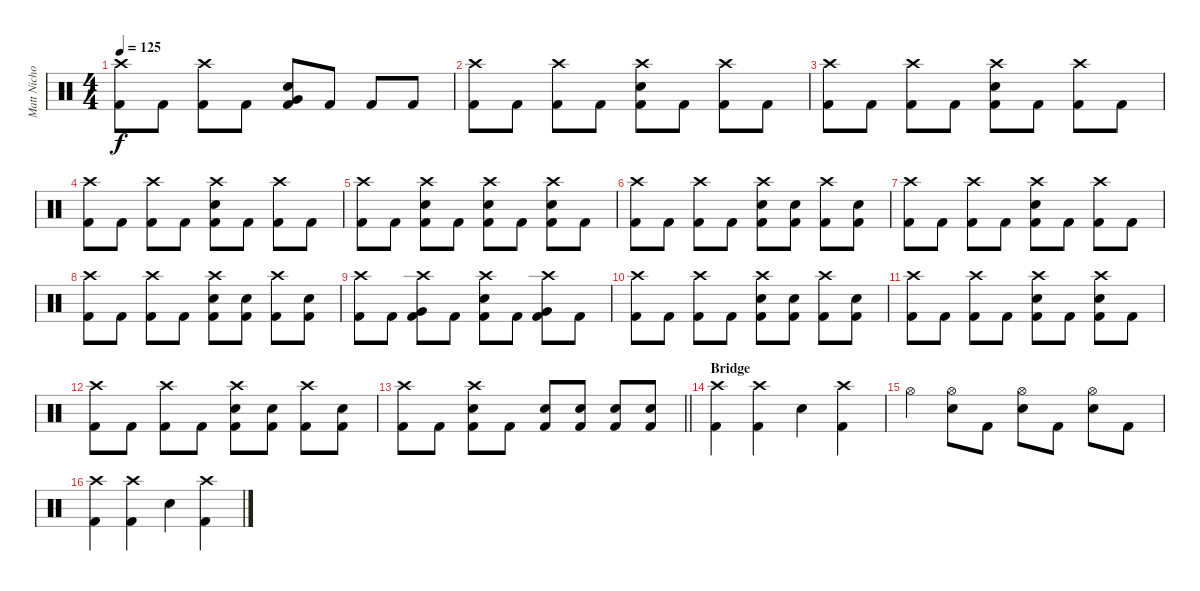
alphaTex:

\track ("Matt Nicholls" "Matt Nicho") {instrument percussion}
\staff {score}
\articulation defaults
\ts (4 4)
\tempo 125
\clef neutral
\ks c
("Crash high (hit)" "Kick (hit) 2").8{dy f} "Kick (hit) 2".8 ("Crash high (hit)" "Kick (hit) 2").8 "Kick (hit) 2".8 ("Very Low Tom (hit)" "Electric Snare (hit)" "Kick (hit) 2").8 "Kick (hit) 2".8 "Kick (hit) 2".8 "Kick (hit) 2".8 |
("Crash high (hit)" "Kick (hit) 2").8 "Kick (hit) 2".8 ("Crash high (hit)" "Kick (hit) 2").8 "Kick (hit) 2".8 ("Crash high (hit)" "Electric Snare (hit)" "Kick (hit) 2").8 "Kick (hit) 2".8 ("Crash high (hit)" "Kick (hit) 2").8 "Kick (hit) 2".8 |
("Crash high (hit)" "Kick (hit) 2").8 "Kick (hit) 2".8 ("Crash high (hit)" "Kick (hit) 2").8 "Kick (hit) 2".8 ("Crash high (hit)" "Electric Snare (hit)" "Kick (hit) 2").8 "Kick (hit) 2".8 ("Crash high (hit)" "Kick (hit) 2").8 "Kick (hit) 2".8 |
("Crash high (hit)" "Kick (hit) 2").8 "Kick (hit) 2".8 ("Crash high (hit)" "Kick (hit) 2").8 "Kick (hit) 2".8 ("Crash high (hit)" "Electric Snare (hit)" "Kick (hit) 2").8 "Kick (hit) 2".8 ("Crash high (hit)" "Kick (hit) 2").8 "Kick (hit) 2".8 |
("Crash high (hit)" "Kick (hit) 2").8 "Kick (hit) 2".8 ("Crash high (hit)" "Electric Snare (hit)" "Kick (hit) 2").8 "Kick (hit) 2".8 ("Crash high (hit)" "Electric Snare (hit)" "Kick (hit) 2").8 "Kick (hit) 2".8 ("Crash high (hit)" "Electric Snare (hit)" "Kick (hit) 2").8 "Kick (hit) 2".8 |
("Crash high (hit)" "Kick (hit) 2").8 "Kick (hit) 2".8 ("Crash high (hit)" "Kick (hit) 2").8 "Kick (hit) 2".8 ("Crash high (hit)" "Electric Snare (hit)" "Kick (hit) 2").8 ("Electric Snare (hit)" "Kick (hit) 2").8 ("Crash high (hit)" "Kick (hit) 2").8 ("Electric Snare (hit)" "Kick (hit) 2").8 |
("Crash high (hit)" "Kick (hit) 2").8 "Kick (hit) 2".8 ("Crash high (hit)" "Kick (hit) 2").8 "Kick (hit) 2".8 ("Crash high (hit)" "Electric Snare (hit)" "Kick (hit) 2").8 "Kick (hit) 2".8 ("Crash high (hit)" "Kick (hit) 2").8 "Kick (hit) 2".8 |
("Crash high (hit)" "Kick (hit) 2").8 "Kick (hit) 2".8 ("Crash high (hit)" "Kick (hit) 2").8 "Kick (hit) 2".8 ("Crash high (hit)" "Electric Snare (hit)" "Kick (hit) 2").8 ("Electric Snare (hit)" "Kick (hit) 2").8 ("Crash high (hit)" "Kick (hit) 2").8 ("Electric Snare (hit)" "Kick (hit) 2").8 |
("Crash high (hit)" "Kick (hit) 2").8 "Kick (hit) 2".8 ("Crash high (hit)" "Very Low Tom (hit)" "Kick (hit) 2").8 "Kick (hit) 2".8 ("Crash high (hit)" "Electric Snare (hit)" "Kick (hit) 2").8 "Kick (hit) 2".8 ("Crash high (hit)" "Very Low Tom (hit)" "Kick (hit) 2").8 "Kick (hit) 2".8 |
("Crash high (hit)" "Kick (hit) 2").8 "Kick (hit) 2".8 ("Crash high (hit)" "Kick (hit) 2").8 "Kick (hit) 2".8 ("Crash high (hit)" "Electric Snare (hit)" "Kick (hit) 2").8 ("Electric Snare (hit)" "Kick (hit) 2").8 ("Crash high (hit)" "Kick (hit) 2").8 ("Electric Snare (hit)" "Kick (hit) 2").8 |
("Crash high (hit)" "Kick (hit) 2").8 "Kick (hit) 2".8 ("Crash high (hit)" "Kick (hit) 2").8 "Kick (hit) 2".8 ("Crash high (hit)" "Electric Snare (hit)" "Kick (hit) 2").8 "Kick (hit) 2".8 ("Crash high (hit)" "Electric Snare (hit)" "Kick (hit) 2").8 "Kick (hit) 2".8 |
("Crash high (hit)" "Kick (hit) 2").8 "Kick (hit) 2".8 ("Crash high (hit)" "Kick (hit) 2").8 "Kick (hit) 2".8 ("Crash high (hit)" "Electric Snare (hit)" "Kick (hit) 2").8 ("Electric Snare (hit)" "Kick (hit) 2").8 ("Crash high (hit)" "Kick (hit) 2").8 ("Electric Snare (hit)" "Kick (hit) 2").8 |
\barLineRight lightlight
("Crash high (hit)" "Kick (hit) 2").8 "Kick (hit) 2".8 ("Crash high (hit)" "Electric Snare (hit)" "Kick (hit) 2").8 "Kick (hit) 2".8 ("Electric Snare (hit)" "Kick (hit) 2").8 ("Electric Snare (hit)" "Kick (hit) 2").8 ("Electric Snare (hit)" "Kick (hit) 2").8 ("Electric Snare (hit)" "Kick (hit) 2").8 |
\section ("" "Bridge")
("Crash high (hit)" "Kick (hit) 2").4 ("Crash high (hit)" "Kick (hit) 2").4 "Electric Snare (hit)".4 ("Crash high (hit)" "Kick (hit) 2").4 |
"Hi-Hat (open)".4 ("Hi-Hat (open)" "Electric Snare (hit)").8 "Kick (hit) 2".8 ("Hi-Hat (open)" "Electric Snare (hit)").8 "Kick (hit) 2".8 ("Hi-Hat (open)" "Electric Snare (hit)").8 "Kick (hit) 2".8 |
("Crash high (hit)" "Kick (hit) 2").4 ("Crash high (hit)" "Kick (hit) 2").4 "Electric Snare (hit)".4 ("Crash high (hit)" "Kick (hit) 2").4
